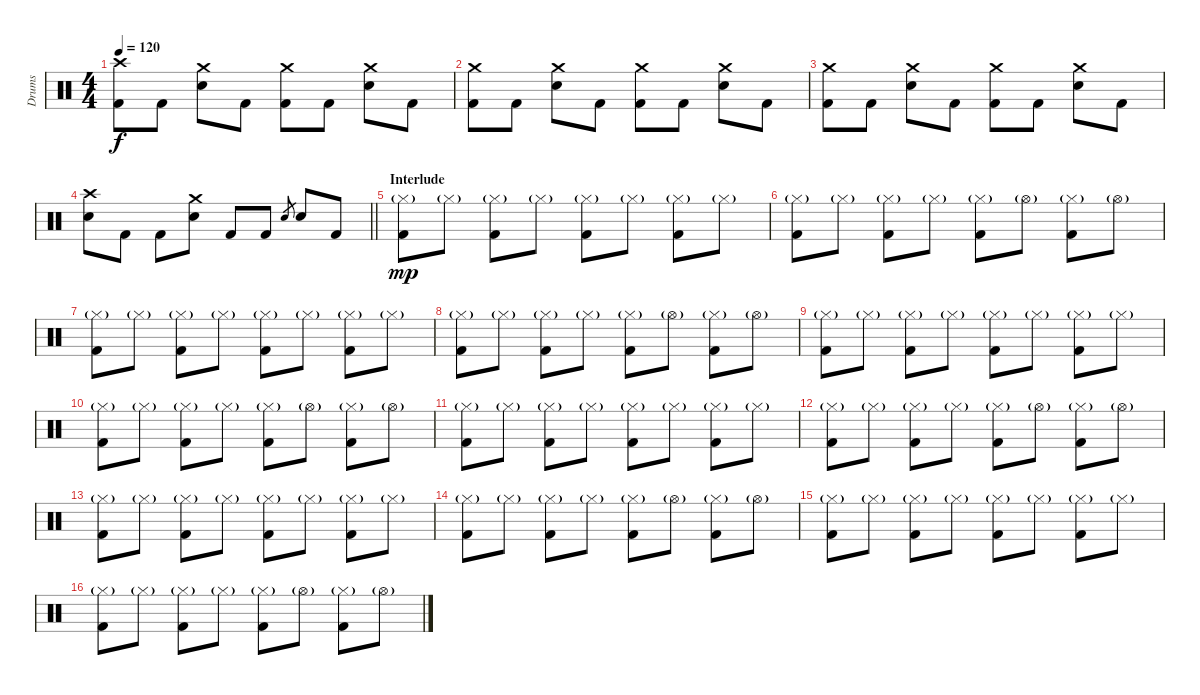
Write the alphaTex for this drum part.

\track ("Drums " "Drums ") {instrument percussion}
\staff {score}
\articulation defaults
\ts (4 4)
\tempo 120
\clef neutral
\ks c
("Crash high (hit)" "Kick (hit) 2").8{dy f} "Kick (hit) 2".8 ("Crash medium (hit)" "Electric Snare (hit)").8 "Kick (hit) 2".8 ("Crash medium (hit)" "Kick (hit) 2").8 "Kick (hit) 2".8 ("Crash medium (hit)" "Electric Snare (hit)").8 "Kick (hit) 2".8 |
("Crash medium (hit)" "Kick (hit) 2").8 "Kick (hit) 2".8 ("Crash medium (hit)" "Electric Snare (hit)").8 "Kick (hit) 2".8 ("Crash medium (hit)" "Kick (hit) 2").8 "Kick (hit) 2".8 ("Crash medium (hit)" "Electric Snare (hit)").8 "Kick (hit) 2".8 |
("Crash medium (hit)" "Kick (hit) 2").8 "Kick (hit) 2".8 ("Crash medium (hit)" "Electric Snare (hit)").8 "Kick (hit) 2".8 ("Crash medium (hit)" "Kick (hit) 2").8 "Kick (hit) 2".8 ("Crash medium (hit)" "Electric Snare (hit)").8 "Kick (hit) 2".8 |
\barLineRight lightlight
("Crash high (hit)" "Electric Snare (hit)").8 "Kick (hit) 2".8 "Kick (hit) 2".8 ("Crash medium (hit)" "Electric Snare (hit)").8 "Kick (hit) 2".8 "Kick (hit) 2".8 "Electric Snare (hit)".8{gr} "Electric Snare (hit)".8 "Kick (hit) 2".8 |
\section ("" "Interlude")
("Hi-Hat (closed)"{g} "Kick (hit) 2").8{dy mp} "Hi-Hat (closed)"{g}.8 ("Hi-Hat (closed)"{g} "Kick (hit) 2").8 "Hi-Hat (closed)"{g}.8 ("Hi-Hat (closed)"{g} "Kick (hit) 2").8 "Hi-Hat (closed)"{g}.8 ("Hi-Hat (closed)"{g} "Kick (hit) 2").8 "Hi-Hat (closed)"{g}.8 |
("Hi-Hat (closed)"{g} "Kick (hit) 2").8 "Hi-Hat (closed)"{g}.8 ("Hi-Hat (closed)"{g} "Kick (hit) 2").8 "Hi-Hat (closed)"{g}.8 ("Hi-Hat (closed)"{g} "Kick (hit) 2").8 "Hi-Hat (open)"{g}.8 ("Hi-Hat (closed)"{g} "Kick (hit) 2").8 "Hi-Hat (open)"{g}.8 |
("Hi-Hat (closed)"{g} "Kick (hit) 2").8 "Hi-Hat (closed)"{g}.8 ("Hi-Hat (closed)"{g} "Kick (hit) 2").8 "Hi-Hat (closed)"{g}.8 ("Hi-Hat (closed)"{g} "Kick (hit) 2").8 "Hi-Hat (closed)"{g}.8 ("Hi-Hat (closed)"{g} "Kick (hit) 2").8 "Hi-Hat (closed)"{g}.8 |
("Hi-Hat (closed)"{g} "Kick (hit) 2").8 "Hi-Hat (closed)"{g}.8 ("Hi-Hat (closed)"{g} "Kick (hit) 2").8 "Hi-Hat (closed)"{g}.8 ("Hi-Hat (closed)"{g} "Kick (hit) 2").8 "Hi-Hat (open)"{g}.8 ("Hi-Hat (closed)"{g} "Kick (hit) 2").8 "Hi-Hat (open)"{g}.8 |
("Hi-Hat (closed)"{g} "Kick (hit) 2").8 "Hi-Hat (closed)"{g}.8 ("Hi-Hat (closed)"{g} "Kick (hit) 2").8 "Hi-Hat (closed)"{g}.8 ("Hi-Hat (closed)"{g} "Kick (hit) 2").8 "Hi-Hat (closed)"{g}.8 ("Hi-Hat (closed)"{g} "Kick (hit) 2").8 "Hi-Hat (closed)"{g}.8 |
("Hi-Hat (closed)"{g} "Kick (hit) 2").8 "Hi-Hat (closed)"{g}.8 ("Hi-Hat (closed)"{g} "Kick (hit) 2").8 "Hi-Hat (closed)"{g}.8 ("Hi-Hat (closed)"{g} "Kick (hit) 2").8 "Hi-Hat (open)"{g}.8 ("Hi-Hat (closed)"{g} "Kick (hit) 2").8 "Hi-Hat (open)"{g}.8 |
("Hi-Hat (closed)"{g} "Kick (hit) 2").8 "Hi-Hat (closed)"{g}.8 ("Hi-Hat (closed)"{g} "Kick (hit) 2").8 "Hi-Hat (closed)"{g}.8 ("Hi-Hat (closed)"{g} "Kick (hit) 2").8 "Hi-Hat (closed)"{g}.8 ("Hi-Hat (closed)"{g} "Kick (hit) 2").8 "Hi-Hat (closed)"{g}.8 |
("Hi-Hat (closed)"{g} "Kick (hit) 2").8 "Hi-Hat (closed)"{g}.8 ("Hi-Hat (closed)"{g} "Kick (hit) 2").8 "Hi-Hat (closed)"{g}.8 ("Hi-Hat (closed)"{g} "Kick (hit) 2").8 "Hi-Hat (open)"{g}.8 ("Hi-Hat (closed)"{g} "Kick (hit) 2").8 "Hi-Hat (open)"{g}.8 |
("Hi-Hat (closed)"{g} "Kick (hit) 2").8 "Hi-Hat (closed)"{g}.8 ("Hi-Hat (closed)"{g} "Kick (hit) 2").8 "Hi-Hat (closed)"{g}.8 ("Hi-Hat (closed)"{g} "Kick (hit) 2").8 "Hi-Hat (closed)"{g}.8 ("Hi-Hat (closed)"{g} "Kick (hit) 2").8 "Hi-Hat (closed)"{g}.8 |
("Hi-Hat (closed)"{g} "Kick (hit) 2").8 "Hi-Hat (closed)"{g}.8 ("Hi-Hat (closed)"{g} "Kick (hit) 2").8 "Hi-Hat (closed)"{g}.8 ("Hi-Hat (closed)"{g} "Kick (hit) 2").8 "Hi-Hat (open)"{g}.8 ("Hi-Hat (closed)"{g} "Kick (hit) 2").8 "Hi-Hat (open)"{g}.8 |
("Hi-Hat (closed)"{g} "Kick (hit) 2").8 "Hi-Hat (closed)"{g}.8 ("Hi-Hat (closed)"{g} "Kick (hit) 2").8 "Hi-Hat (closed)"{g}.8 ("Hi-Hat (closed)"{g} "Kick (hit) 2").8 "Hi-Hat (closed)"{g}.8 ("Hi-Hat (closed)"{g} "Kick (hit) 2").8 "Hi-Hat (closed)"{g}.8 |
("Hi-Hat (closed)"{g} "Kick (hit) 2").8 "Hi-Hat (closed)"{g}.8 ("Hi-Hat (closed)"{g} "Kick (hit) 2").8 "Hi-Hat (closed)"{g}.8 ("Hi-Hat (closed)"{g} "Kick (hit) 2").8 "Hi-Hat (open)"{g}.8 ("Hi-Hat (closed)"{g} "Kick (hit) 2").8 "Hi-Hat (open)"{g}.8
